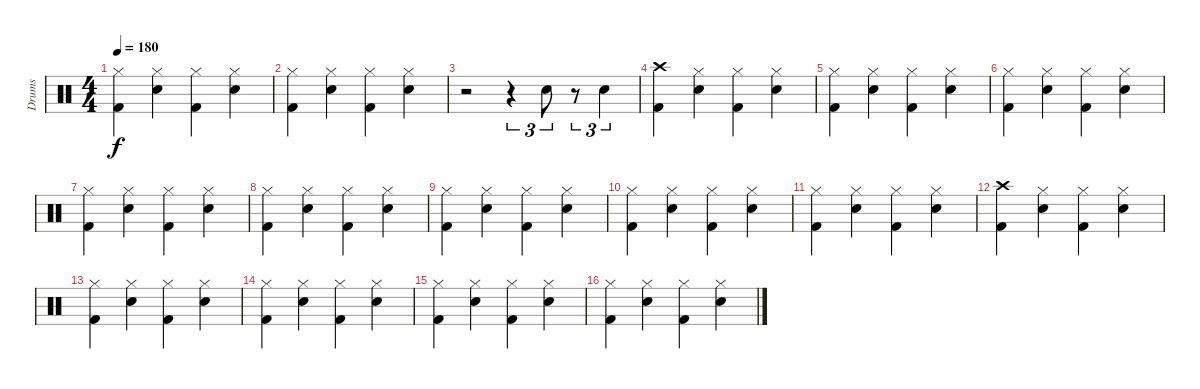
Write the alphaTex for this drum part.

\track ("Drums" "Drums") {instrument percussion}
\staff {score}
\articulation defaults
\ts (4 4)
\tempo 180
\clef neutral
\ks c
("Hi-Hat (closed)" "Kick (hit) 2").4{dy f} ("Hi-Hat (closed)" "Snare (hit) 2").4 ("Hi-Hat (closed)" "Kick (hit) 2").4 ("Hi-Hat (closed)" "Snare (hit) 2").4 |
("Hi-Hat (closed)" "Kick (hit) 2").4 ("Hi-Hat (closed)" "Snare (hit) 2").4 ("Hi-Hat (closed)" "Kick (hit) 2").4 ("Hi-Hat (closed)" "Snare (hit) 2").4 |
r.2 r.4{tu (3 2)} "Snare (hit) 2".8{tu (3 2)} r.8{tu (3 2)} "Snare (hit) 2".4{tu (3 2)} |
("Crash high (hit)" "Kick (hit) 2").4 ("Hi-Hat (closed)" "Snare (hit) 2").4 ("Hi-Hat (closed)" "Kick (hit) 2").4 ("Hi-Hat (closed)" "Snare (hit) 2").4 |
("Hi-Hat (closed)" "Kick (hit) 2").4 ("Hi-Hat (closed)" "Snare (hit) 2").4 ("Hi-Hat (closed)" "Kick (hit) 2").4 ("Hi-Hat (closed)" "Snare (hit) 2").4 |
("Hi-Hat (closed)" "Kick (hit) 2").4 ("Hi-Hat (closed)" "Snare (hit) 2").4 ("Hi-Hat (closed)" "Kick (hit) 2").4 ("Hi-Hat (closed)" "Snare (hit) 2").4 |
("Hi-Hat (closed)" "Kick (hit) 2").4 ("Hi-Hat (closed)" "Snare (hit) 2").4 ("Hi-Hat (closed)" "Kick (hit) 2").4 ("Hi-Hat (closed)" "Snare (hit) 2").4 |
("Hi-Hat (closed)" "Kick (hit) 2").4 ("Hi-Hat (closed)" "Snare (hit) 2").4 ("Hi-Hat (closed)" "Kick (hit) 2").4 ("Hi-Hat (closed)" "Snare (hit) 2").4 |
("Hi-Hat (closed)" "Kick (hit) 2").4 ("Hi-Hat (closed)" "Snare (hit) 2").4 ("Hi-Hat (closed)" "Kick (hit) 2").4 ("Hi-Hat (closed)" "Snare (hit) 2").4 |
("Hi-Hat (closed)" "Kick (hit) 2").4 ("Hi-Hat (closed)" "Snare (hit) 2").4 ("Hi-Hat (closed)" "Kick (hit) 2").4 ("Hi-Hat (closed)" "Snare (hit) 2").4 |
("Hi-Hat (closed)" "Kick (hit) 2").4 ("Hi-Hat (closed)" "Snare (hit) 2").4 ("Hi-Hat (closed)" "Kick (hit) 2").4 ("Hi-Hat (closed)" "Snare (hit) 2").4 |
("Crash high (hit)" "Kick (hit) 2").4 ("Hi-Hat (closed)" "Snare (hit) 2").4 ("Hi-Hat (closed)" "Kick (hit) 2").4 ("Hi-Hat (closed)" "Snare (hit) 2").4 |
("Hi-Hat (closed)" "Kick (hit) 2").4 ("Hi-Hat (closed)" "Snare (hit) 2").4 ("Hi-Hat (closed)" "Kick (hit) 2").4 ("Hi-Hat (closed)" "Snare (hit) 2").4 |
("Hi-Hat (closed)" "Kick (hit) 2").4 ("Hi-Hat (closed)" "Snare (hit) 2").4 ("Hi-Hat (closed)" "Kick (hit) 2").4 ("Hi-Hat (closed)" "Snare (hit) 2").4 |
("Hi-Hat (closed)" "Kick (hit) 2").4 ("Hi-Hat (closed)" "Snare (hit) 2").4 ("Hi-Hat (closed)" "Kick (hit) 2").4 ("Hi-Hat (closed)" "Snare (hit) 2").4 |
("Hi-Hat (closed)" "Kick (hit) 2").4 ("Hi-Hat (closed)" "Snare (hit) 2").4 ("Hi-Hat (closed)" "Kick (hit) 2").4 ("Hi-Hat (closed)" "Snare (hit) 2").4
